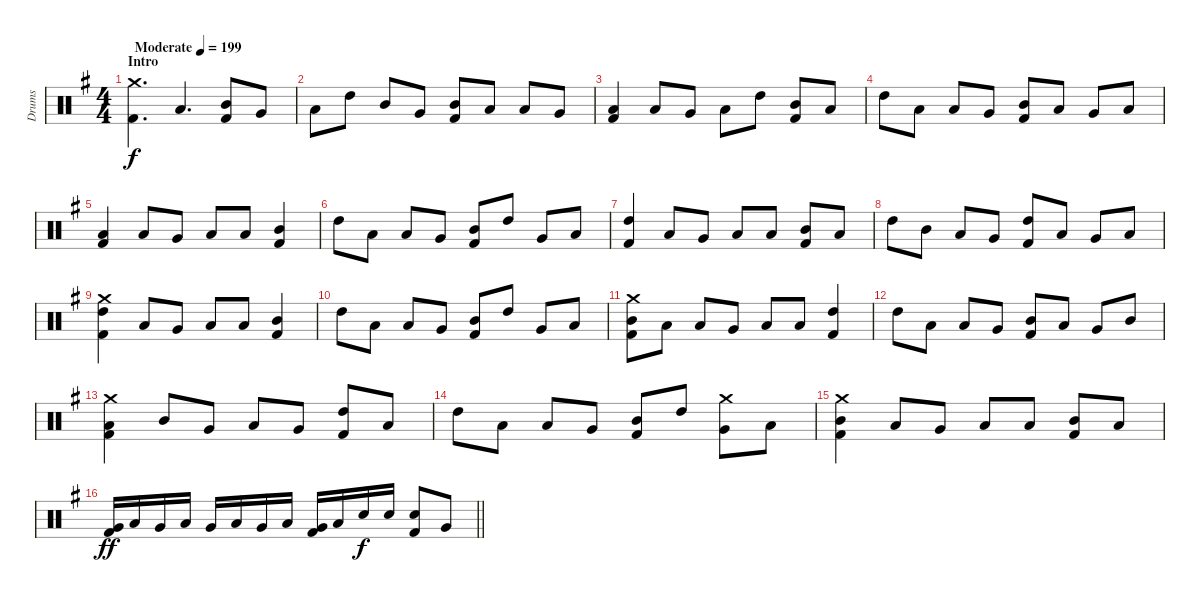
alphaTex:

\track ("Drums" "Drums") {instrument percussion}
\staff {score}
\articulation defaults
\ts (4 4)
\section ("" "Intro")
\tempo (199 "Moderate")
\clef neutral
\ks eminor
("Crash medium (hit)" "Kick (hit) 2").4{d dy f} "Low Tom (hit)".4{d} ("Mid Tom (hit)" "Kick (hit) 2").8 "Very Low Tom (hit)".8 |
"Low Tom (hit)".8 "High Tom (hit)".8 "Mid Tom (hit)".8 "Very Low Tom (hit)".8 ("Mid Tom (hit)" "Kick (hit) 2").8 "Low Floor Tom (hit)".8 "Low Tom (hit)".8 "Very Low Tom (hit)".8 |
("Low Tom (hit)" "Kick (hit) 2").4 "Low Tom (hit)".8 "Very Low Tom (hit)".8 "Low Tom (hit)".8 "High Tom (hit)".8 ("Mid Tom (hit)" "Kick (hit) 2").8 "Low Floor Tom (hit)".8 |
"High Tom (hit)".8 "Low Tom (hit)".8 "Low Floor Tom (hit)".8 "Very Low Tom (hit)".8 ("Mid Tom (hit)" "Kick (hit) 2").8 "Low Floor Tom (hit)".8 "Very Low Tom (hit)".8 "Low Tom (hit)".8 |
("Low Tom (hit)" "Kick (hit) 2").4 "Low Tom (hit)".8 "Very Low Tom (hit)".8 "Low Tom (hit)".8 "Low Floor Tom (hit)".8 ("Mid Tom (hit)" "Kick (hit) 2").4 |
"High Tom (hit)".8 "Low Tom (hit)".8 "Low Floor Tom (hit)".8 "Very Low Tom (hit)".8 ("Mid Tom (hit)" "Kick (hit) 2").8 "High Tom (hit)".8 "Very Low Tom (hit)".8 "Low Tom (hit)".8 |
("High Tom (hit)" "Kick (hit) 2").4 "Low Tom (hit)".8 "Very Low Tom (hit)".8 "Low Tom (hit)".8 "Low Floor Tom (hit)".8 ("Mid Tom (hit)" "Kick (hit) 2").8 "Low Floor Tom (hit)".8 |
"High Tom (hit)".8 "Mid Tom (hit)".8 "Low Floor Tom (hit)".8 "Very Low Tom (hit)".8 ("High Tom (hit)" "Kick (hit) 2").8 "Low Tom (hit)".8 "Very Low Tom (hit)".8 "Low Tom (hit)".8 |
("Crash medium (hit)" "High Tom (hit)" "Kick (hit) 2").4 "Low Tom (hit)".8 "Very Low Tom (hit)".8 "Low Tom (hit)".8 "Low Floor Tom (hit)".8 ("Mid Tom (hit)" "Kick (hit) 2").4 |
"High Tom (hit)".8 "Low Tom (hit)".8 "Low Floor Tom (hit)".8 "Very Low Tom (hit)".8 ("Mid Tom (hit)" "Kick (hit) 2").8 "High Tom (hit)".8 "Very Low Tom (hit)".8 "Low Tom (hit)".8 |
("Crash medium (hit)" "Mid Tom (hit)" "Kick (hit) 2").8 "Low Floor Tom (hit)".8 "Low Tom (hit)".8 "Very Low Tom (hit)".8 "Low Tom (hit)".8 "Low Floor Tom (hit)".8 ("High Tom (hit)" "Kick (hit) 2").4 |
"High Tom (hit)".8 "Low Tom (hit)".8 "Low Floor Tom (hit)".8 "Very Low Tom (hit)".8 ("Mid Tom (hit)" "Kick (hit) 2").8 "Low Tom (hit)".8 "Very Low Tom (hit)".8 "Mid Tom (hit)".8 |
("Crash medium (hit)" "Low Tom (hit)" "Kick (hit) 2").4 "Mid Tom (hit)".8 "Very Low Tom (hit)".8 "Low Tom (hit)".8 "Very Low Tom (hit)".8 ("High Tom (hit)" "Kick (hit) 2").8 "Low Floor Tom (hit)".8 |
"High Tom (hit)".8 "Low Tom (hit)".8 "Low Floor Tom (hit)".8 "Very Low Tom (hit)".8 ("Mid Tom (hit)" "Kick (hit) 2").8 "High Tom (hit)".8 ("Crash medium (hit)" "Very Low Tom (hit)").8 "Low Tom (hit)".8 |
("Crash medium (hit)" "Mid Tom (hit)" "Kick (hit) 2").4 "Low Tom (hit)".8 "Very Low Tom (hit)".8 "Low Tom (hit)".8 "Low Floor Tom (hit)".8 ("Mid Tom (hit)" "Kick (hit) 2").8 "Low Tom (hit)".8 |
\barLineRight lightlight
("Very Low Tom (hit)" "Kick (hit) 2").16{dy ff} "Low Floor Tom (hit)".16 "Very Low Tom (hit)".16 "Low Floor Tom (hit)".16 "Very Low Tom (hit)".16 "Low Floor Tom (hit)".16 "Very Low Tom (hit)".16 "Low Floor Tom (hit)".16 ("Very Low Tom (hit)" "Kick (hit) 2").16 "Low Floor Tom (hit)".16 "Electric Snare (hit)".16{dy f} "Electric Snare (hit)".16 ("Electric Snare (hit)" "Kick (hit) 2").8 "Very Low Tom (hit)".8
